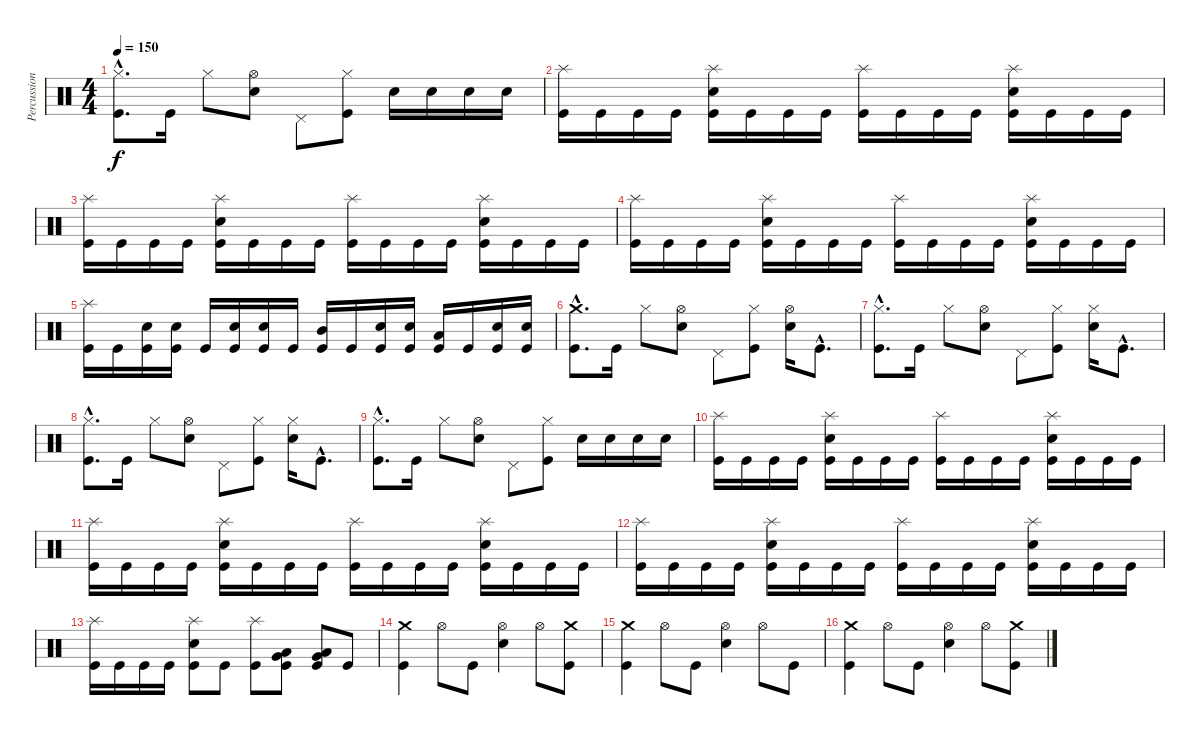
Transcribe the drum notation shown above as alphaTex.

\track ("Percussions" "Percussion") {instrument percussion}
\staff {score}
\articulation defaults
\ts (4 4)
\tempo 150
\clef neutral
\ks c
("Kick (hit)"{hac} "Hi-Hat (closed)"{hac}).8{d dy f} "Kick (hit)".16 "Hi-Hat (closed)".8 ("Electric Snare (hit)" "Hi-Hat (open)").8 "Pedal Hi-Hat (hit)".8 ("Kick (hit)" "Hi-Hat (closed)").8 "Electric Snare (hit)".16 "Electric Snare (hit)".16 "Electric Snare (hit)".16 "Electric Snare (hit)".16 |
("Kick (hit)" "Splash (hit)").16 "Kick (hit)".16 "Kick (hit)".16 "Kick (hit)".16 ("Kick (hit)" "Electric Snare (hit)" "Splash (hit)").16 "Kick (hit)".16 "Kick (hit)".16 "Kick (hit)".16 ("Kick (hit)" "Splash (hit)").16 "Kick (hit)".16 "Kick (hit)".16 "Kick (hit)".16 ("Kick (hit)" "Electric Snare (hit)" "Splash (hit)").16 "Kick (hit)".16 "Kick (hit)".16 "Kick (hit)".16 |
("Kick (hit)" "Splash (hit)").16 "Kick (hit)".16 "Kick (hit)".16 "Kick (hit)".16 ("Kick (hit)" "Electric Snare (hit)" "Splash (hit)").16 "Kick (hit)".16 "Kick (hit)".16 "Kick (hit)".16 ("Kick (hit)" "Splash (hit)").16 "Kick (hit)".16 "Kick (hit)".16 "Kick (hit)".16 ("Kick (hit)" "Electric Snare (hit)" "Splash (hit)").16 "Kick (hit)".16 "Kick (hit)".16 "Kick (hit)".16 |
("Kick (hit)" "Splash (hit)").16 "Kick (hit)".16 "Kick (hit)".16 "Kick (hit)".16 ("Kick (hit)" "Electric Snare (hit)" "Splash (hit)").16 "Kick (hit)".16 "Kick (hit)".16 "Kick (hit)".16 ("Kick (hit)" "Splash (hit)").16 "Kick (hit)".16 "Kick (hit)".16 "Kick (hit)".16 ("Kick (hit)" "Electric Snare (hit)" "Splash (hit)").16 "Kick (hit)".16 "Kick (hit)".16 "Kick (hit)".16 |
("Kick (hit)" "Splash (hit)").16 "Kick (hit)".16 ("Kick (hit)" "Electric Snare (hit)").16 ("Kick (hit)" "Electric Snare (hit)").16 "Kick (hit)".16 ("Kick (hit)" "Electric Snare (hit)").16 ("Kick (hit)" "Electric Snare (hit)").16 "Kick (hit)".16 ("Kick (hit)" "Mid Tom (hit)").16 "Kick (hit)".16 ("Kick (hit)" "Electric Snare (hit)").16 ("Kick (hit)" "Electric Snare (hit)").16 ("Kick (hit)" "Low Tom (hit)").16 "Kick (hit)".16 ("Kick (hit)" "Electric Snare (hit)").16 ("Kick (hit)" "Electric Snare (hit)").16 |
("Kick (hit)"{hac} "Crash medium (hit)"{hac}).8{d} "Kick (hit)".16 "Hi-Hat (closed)".8 ("Electric Snare (hit)" "Hi-Hat (open)").8 "Pedal Hi-Hat (hit)".8 ("Kick (hit)" "Hi-Hat (closed)").8 ("Electric Snare (hit)" "Hi-Hat (open)").16 "Kick (hit)"{hac}.8{d} |
("Kick (hit)"{hac} "Hi-Hat (closed)"{hac}).8{d} "Kick (hit)".16 "Hi-Hat (closed)".8 ("Electric Snare (hit)" "Hi-Hat (open)").8 "Pedal Hi-Hat (hit)".8 ("Kick (hit)" "Hi-Hat (closed)").8 ("Electric Snare (hit)" "Hi-Hat (closed)").16 "Kick (hit)"{hac}.8{d} |
("Kick (hit)"{hac} "Hi-Hat (closed)"{hac}).8{d} "Kick (hit)".16 "Hi-Hat (closed)".8 ("Electric Snare (hit)" "Hi-Hat (open)").8 "Pedal Hi-Hat (hit)".8 ("Kick (hit)" "Hi-Hat (closed)").8 ("Electric Snare (hit)" "Hi-Hat (closed)").16 "Kick (hit)"{hac}.8{d} |
("Kick (hit)"{hac} "Hi-Hat (closed)"{hac}).8{d} "Kick (hit)".16 "Hi-Hat (closed)".8 ("Electric Snare (hit)" "Hi-Hat (open)").8 "Pedal Hi-Hat (hit)".8 ("Kick (hit)" "Hi-Hat (closed)").8 "Electric Snare (hit)".16 "Electric Snare (hit)".16 "Electric Snare (hit)".16 "Electric Snare (hit)".16 |
("Kick (hit)" "Splash (hit)").16 "Kick (hit)".16 "Kick (hit)".16 "Kick (hit)".16 ("Kick (hit)" "Electric Snare (hit)" "Splash (hit)").16 "Kick (hit)".16 "Kick (hit)".16 "Kick (hit)".16 ("Kick (hit)" "Splash (hit)").16 "Kick (hit)".16 "Kick (hit)".16 "Kick (hit)".16 ("Kick (hit)" "Electric Snare (hit)" "Splash (hit)").16 "Kick (hit)".16 "Kick (hit)".16 "Kick (hit)".16 |
("Kick (hit)" "Splash (hit)").16 "Kick (hit)".16 "Kick (hit)".16 "Kick (hit)".16 ("Kick (hit)" "Electric Snare (hit)" "Splash (hit)").16 "Kick (hit)".16 "Kick (hit)".16 "Kick (hit)".16 ("Kick (hit)" "Splash (hit)").16 "Kick (hit)".16 "Kick (hit)".16 "Kick (hit)".16 ("Kick (hit)" "Electric Snare (hit)" "Splash (hit)").16 "Kick (hit)".16 "Kick (hit)".16 "Kick (hit)".16 |
("Kick (hit)" "Splash (hit)").16 "Kick (hit)".16 "Kick (hit)".16 "Kick (hit)".16 ("Kick (hit)" "Electric Snare (hit)" "Splash (hit)").16 "Kick (hit)".16 "Kick (hit)".16 "Kick (hit)".16 ("Kick (hit)" "Splash (hit)").16 "Kick (hit)".16 "Kick (hit)".16 "Kick (hit)".16 ("Kick (hit)" "Electric Snare (hit)" "Splash (hit)").16 "Kick (hit)".16 "Kick (hit)".16 "Kick (hit)".16 |
("Kick (hit)" "Splash (hit)").16 "Kick (hit)".16 "Kick (hit)".16 "Kick (hit)".16 ("Kick (hit)" "Electric Snare (hit)" "Splash (hit)").8 "Kick (hit)".8 ("Kick (hit)" "Splash (hit)").8 ("Kick (hit)" "Low Tom (hit)" "Very Low Tom (hit)").8 ("Kick (hit)" "Very Low Tom (hit)" "Low Floor Tom (hit)").8 "Kick (hit)".8 |
("Kick (hit)" "Crash medium (hit)").4 "Hi-Hat (open)".8 "Kick (hit)".8 ("Electric Snare (hit)" "Hi-Hat (open)").4 "Hi-Hat (open)".8 ("Kick (hit)" "Crash medium (hit)").8 |
("Kick (hit)" "Crash medium (hit)").4 "Hi-Hat (open)".8 "Kick (hit)".8 ("Electric Snare (hit)" "Hi-Hat (open)").4 "Hi-Hat (open)".8 "Kick (hit)".8 |
("Kick (hit)" "Crash medium (hit)").4 "Hi-Hat (open)".8 "Kick (hit)".8 ("Electric Snare (hit)" "Hi-Hat (open)").4 "Hi-Hat (open)".8 ("Kick (hit)" "Crash medium (hit)").8
